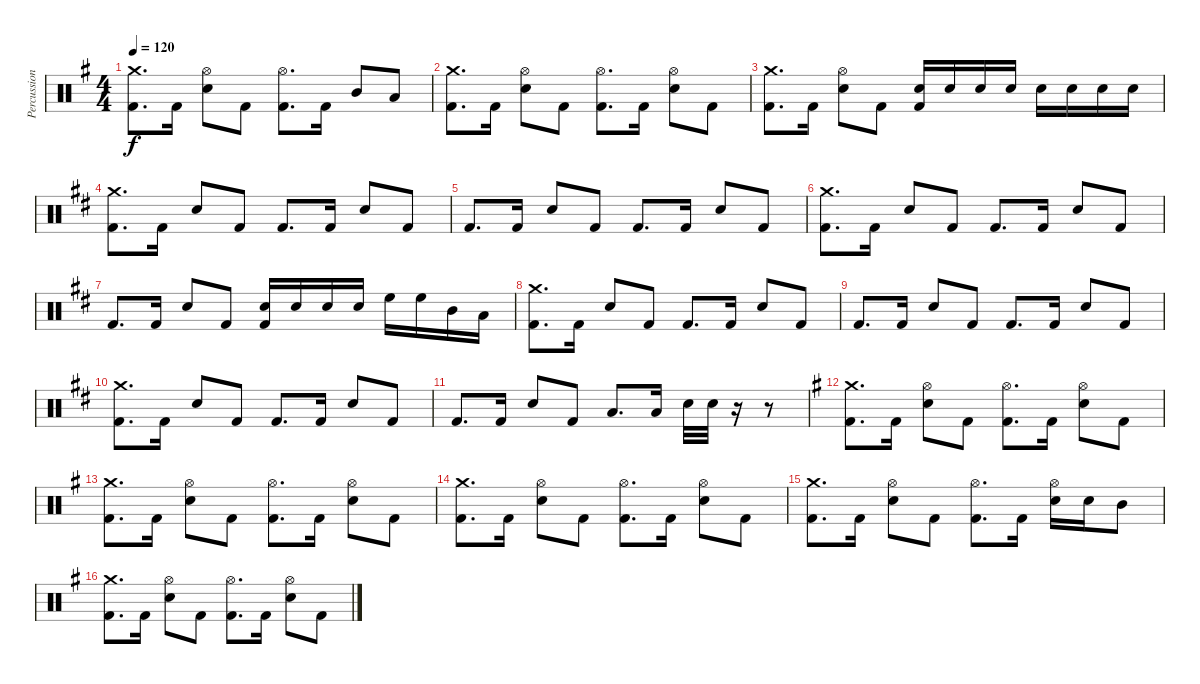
\track ("Percussion" "Percussion") {instrument percussion}
\staff {score}
\articulation defaults
\ts (4 4)
\tempo 120
\clef neutral
\ks g
("Crash medium (hit)" "Kick (hit) 2").8{d dy f} "Kick (hit) 2".16 ("Hi-Hat (open)" "Snare (hit) 2").8 "Kick (hit) 2".8 ("Hi-Hat (open)" "Kick (hit) 2").8{d} "Kick (hit) 2".16 "Mid Tom (hit)".8 "Low Floor Tom (hit)".8 |
("Crash medium (hit)" "Kick (hit) 2").8{d} "Kick (hit) 2".16 ("Hi-Hat (open)" "Snare (hit) 2").8 "Kick (hit) 2".8 ("Hi-Hat (open)" "Kick (hit) 2").8{d} "Kick (hit) 2".16 ("Hi-Hat (open)" "Snare (hit) 2").8 "Kick (hit) 2".8 |
("Crash medium (hit)" "Kick (hit) 2").8{d} "Kick (hit) 2".16 ("Hi-Hat (open)" "Snare (hit) 2").8 "Kick (hit) 2".8 ("Snare (hit) 2" "Kick (hit) 2").16 "Snare (hit) 2".16 "Snare (hit) 2".16 "Snare (hit) 2".16 "Snare (hit) 2".16 "Snare (hit) 2".16 "Snare (hit) 2".16 "Snare (hit) 2".16 |
\ks d
("Crash medium (hit)" "Kick (hit) 2").8{d} "Kick (hit) 2".16 "Snare (hit) 2".8 "Kick (hit) 2".8 "Kick (hit) 2".8{d} "Kick (hit) 2".16 "Snare (hit) 2".8 "Kick (hit) 2".8 |
"Kick (hit) 2".8{d} "Kick (hit) 2".16 "Snare (hit) 2".8 "Kick (hit) 2".8 "Kick (hit) 2".8{d} "Kick (hit) 2".16 "Snare (hit) 2".8 "Kick (hit) 2".8 |
("Crash medium (hit)" "Kick (hit) 2").8{d} "Kick (hit) 2".16 "Snare (hit) 2".8 "Kick (hit) 2".8 "Kick (hit) 2".8{d} "Kick (hit) 2".16 "Snare (hit) 2".8 "Kick (hit) 2".8 |
"Kick (hit) 2".8{d} "Kick (hit) 2".16 "Snare (hit) 2".8 "Kick (hit) 2".8 ("Snare (hit) 2" "Kick (hit) 2").16 "Snare (hit) 2".16 "Snare (hit) 2".16 "Snare (hit) 2".16 "High Floor Tom (hit)".16 "High Floor Tom (hit)".16 "Mid Tom (hit)".16 "Low Floor Tom (hit)".16 |
("Crash medium (hit)" "Kick (hit) 2").8{d} "Kick (hit) 2".16 "Snare (hit) 2".8 "Kick (hit) 2".8 "Kick (hit) 2".8{d} "Kick (hit) 2".16 "Snare (hit) 2".8 "Kick (hit) 2".8 |
"Kick (hit) 2".8{d} "Kick (hit) 2".16 "Snare (hit) 2".8 "Kick (hit) 2".8 "Kick (hit) 2".8{d} "Kick (hit) 2".16 "Snare (hit) 2".8 "Kick (hit) 2".8 |
("Crash medium (hit)" "Kick (hit) 2").8{d} "Kick (hit) 2".16 "Snare (hit) 2".8 "Kick (hit) 2".8 "Kick (hit) 2".8{d} "Kick (hit) 2".16 "Snare (hit) 2".8 "Kick (hit) 2".8 |
"Kick (hit) 2".8{d} "Kick (hit) 2".16 "Snare (hit) 2".8 "Kick (hit) 2".8 "Low Floor Tom (hit)".8{d} "Low Floor Tom (hit)".16 "Snare (hit) 2".32 "Snare (hit) 2".32 r.16 r.8 |
\ks g
("Crash medium (hit)" "Kick (hit) 2").8{d} "Kick (hit) 2".16 ("Hi-Hat (open)" "Snare (hit) 2").8 "Kick (hit) 2".8 ("Hi-Hat (open)" "Kick (hit) 2").8{d} "Kick (hit) 2".16 ("Hi-Hat (open)" "Snare (hit) 2").8 "Kick (hit) 2".8 |
("Crash medium (hit)" "Kick (hit) 2").8{d} "Kick (hit) 2".16 ("Hi-Hat (open)" "Snare (hit) 2").8 "Kick (hit) 2".8 ("Hi-Hat (open)" "Kick (hit) 2").8{d} "Kick (hit) 2".16 ("Hi-Hat (open)" "Snare (hit) 2").8 "Kick (hit) 2".8 |
("Crash medium (hit)" "Kick (hit) 2").8{d} "Kick (hit) 2".16 ("Hi-Hat (open)" "Snare (hit) 2").8 "Kick (hit) 2".8 ("Hi-Hat (open)" "Kick (hit) 2").8{d} "Kick (hit) 2".16 ("Hi-Hat (open)" "Snare (hit) 2").8 "Kick (hit) 2".8 |
("Crash medium (hit)" "Kick (hit) 2").8{d} "Kick (hit) 2".16 ("Hi-Hat (open)" "Snare (hit) 2").8 "Kick (hit) 2".8 ("Hi-Hat (open)" "Kick (hit) 2").8{d} "Kick (hit) 2".16 ("Hi-Hat (open)" "Snare (hit) 2").16 "Snare (hit) 2".16 "Mid Tom (hit)".8 |
("Crash medium (hit)" "Kick (hit) 2").8{d} "Kick (hit) 2".16 ("Hi-Hat (open)" "Snare (hit) 2").8 "Kick (hit) 2".8 ("Hi-Hat (open)" "Kick (hit) 2").8{d} "Kick (hit) 2".16 ("Hi-Hat (open)" "Snare (hit) 2").8 "Kick (hit) 2".8
